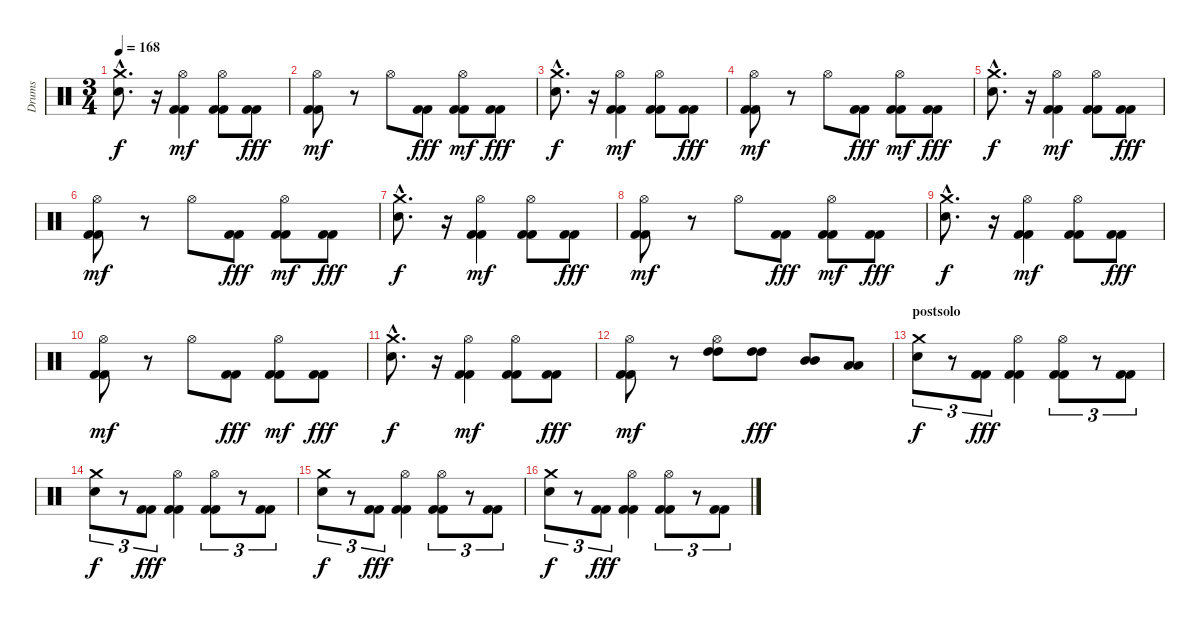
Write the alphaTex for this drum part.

\track ("Drums" "Drums") {instrument percussion}
\staff {score}
\articulation defaults
\ts (3 4)
\tempo 168
\clef neutral
\ks c
("Crash medium (hit)"{hac} "Electric Snare (hit)"{hac}).8{d dy f} r.16 ("Kick (hit) 2" "Kick (hit) 2" "Hi-Hat (open)").4{dy mf} ("Kick (hit) 2" "Kick (hit) 2" "Hi-Hat (open)").8 ("Kick (hit) 2" "Kick (hit) 2").8{dy fff} |
("Kick (hit) 2" "Kick (hit) 2" "Hi-Hat (open)").8{dy mf} r.8 "Hi-Hat (open)".8 ("Kick (hit) 2" "Kick (hit) 2").8{dy fff} ("Kick (hit) 2" "Kick (hit) 2" "Hi-Hat (open)").8{dy mf} ("Kick (hit) 2" "Kick (hit) 2").8{dy fff} |
("Crash medium (hit)"{hac} "Electric Snare (hit)"{hac}).8{d dy f} r.16 ("Kick (hit) 2" "Kick (hit) 2" "Hi-Hat (open)").4{dy mf} ("Kick (hit) 2" "Kick (hit) 2" "Hi-Hat (open)").8 ("Kick (hit) 2" "Kick (hit) 2").8{dy fff} |
("Kick (hit) 2" "Kick (hit) 2" "Hi-Hat (open)").8{dy mf} r.8 "Hi-Hat (open)".8 ("Kick (hit) 2" "Kick (hit) 2").8{dy fff} ("Kick (hit) 2" "Kick (hit) 2" "Hi-Hat (open)").8{dy mf} ("Kick (hit) 2" "Kick (hit) 2").8{dy fff} |
("Crash medium (hit)"{hac} "Electric Snare (hit)"{hac}).8{d dy f} r.16 ("Kick (hit) 2" "Kick (hit) 2" "Hi-Hat (open)").4{dy mf} ("Kick (hit) 2" "Kick (hit) 2" "Hi-Hat (open)").8 ("Kick (hit) 2" "Kick (hit) 2").8{dy fff} |
("Kick (hit) 2" "Kick (hit) 2" "Hi-Hat (open)").8{dy mf} r.8 "Hi-Hat (open)".8 ("Kick (hit) 2" "Kick (hit) 2").8{dy fff} ("Kick (hit) 2" "Kick (hit) 2" "Hi-Hat (open)").8{dy mf} ("Kick (hit) 2" "Kick (hit) 2").8{dy fff} |
("Crash medium (hit)"{hac} "Electric Snare (hit)"{hac}).8{d dy f} r.16 ("Kick (hit) 2" "Kick (hit) 2" "Hi-Hat (open)").4{dy mf} ("Kick (hit) 2" "Kick (hit) 2" "Hi-Hat (open)").8 ("Kick (hit) 2" "Kick (hit) 2").8{dy fff} |
("Kick (hit) 2" "Kick (hit) 2" "Hi-Hat (open)").8{dy mf} r.8 "Hi-Hat (open)".8 ("Kick (hit) 2" "Kick (hit) 2").8{dy fff} ("Kick (hit) 2" "Kick (hit) 2" "Hi-Hat (open)").8{dy mf} ("Kick (hit) 2" "Kick (hit) 2").8{dy fff} |
("Crash medium (hit)"{hac} "Electric Snare (hit)"{hac}).8{d dy f} r.16 ("Kick (hit) 2" "Kick (hit) 2" "Hi-Hat (open)").4{dy mf} ("Kick (hit) 2" "Kick (hit) 2" "Hi-Hat (open)").8 ("Kick (hit) 2" "Kick (hit) 2").8{dy fff} |
("Kick (hit) 2" "Kick (hit) 2" "Hi-Hat (open)").8{dy mf} r.8 "Hi-Hat (open)".8 ("Kick (hit) 2" "Kick (hit) 2").8{dy fff} ("Kick (hit) 2" "Kick (hit) 2" "Hi-Hat (open)").8{dy mf} ("Kick (hit) 2" "Kick (hit) 2").8{dy fff} |
("Crash medium (hit)"{hac} "Electric Snare (hit)"{hac}).8{d dy f} r.16 ("Kick (hit) 2" "Kick (hit) 2" "Hi-Hat (open)").4{dy mf} ("Kick (hit) 2" "Kick (hit) 2" "Hi-Hat (open)").8 ("Kick (hit) 2" "Kick (hit) 2").8{dy fff} |
("Kick (hit) 2" "Kick (hit) 2" "Hi-Hat (open)").8{dy mf} r.8 ("High Tom (hit)" "High Tom (hit)" "Hi-Hat (open)").8 ("High Tom (hit)" "High Tom (hit)").8{dy fff} ("Mid Tom (hit)" "Mid Tom (hit)").8 ("Low Tom (hit)" "Low Tom (hit)").8 |
\section ("" "postsolo")
("Electric Snare (hit)" "Crash medium (hit)").8{tu (3 2) dy f} r.8{tu (3 2)} ("Kick (hit) 2" "Kick (hit) 2").8{tu (3 2) dy fff} ("Hi-Hat (open)" "Kick (hit) 2" "Kick (hit) 2").4 ("Hi-Hat (open)" "Kick (hit) 2" "Kick (hit) 2").8{tu (3 2)} r.8{tu (3 2)} ("Kick (hit) 2" "Kick (hit) 2").8{tu (3 2)} |
("Electric Snare (hit)" "Crash medium (hit)").8{tu (3 2) dy f} r.8{tu (3 2)} ("Kick (hit) 2" "Kick (hit) 2").8{tu (3 2) dy fff} ("Hi-Hat (open)" "Kick (hit) 2" "Kick (hit) 2").4 ("Hi-Hat (open)" "Kick (hit) 2" "Kick (hit) 2").8{tu (3 2)} r.8{tu (3 2)} ("Kick (hit) 2" "Kick (hit) 2").8{tu (3 2)} |
("Electric Snare (hit)" "Crash medium (hit)").8{tu (3 2) dy f} r.8{tu (3 2)} ("Kick (hit) 2" "Kick (hit) 2").8{tu (3 2) dy fff} ("Hi-Hat (open)" "Kick (hit) 2" "Kick (hit) 2").4 ("Hi-Hat (open)" "Kick (hit) 2" "Kick (hit) 2").8{tu (3 2)} r.8{tu (3 2)} ("Kick (hit) 2" "Kick (hit) 2").8{tu (3 2)} |
("Electric Snare (hit)" "Crash medium (hit)").8{tu (3 2) dy f} r.8{tu (3 2)} ("Kick (hit) 2" "Kick (hit) 2").8{tu (3 2) dy fff} ("Hi-Hat (open)" "Kick (hit) 2" "Kick (hit) 2").4 ("Hi-Hat (open)" "Kick (hit) 2" "Kick (hit) 2").8{tu (3 2)} r.8{tu (3 2)} ("Kick (hit) 2" "Kick (hit) 2").8{tu (3 2)}
